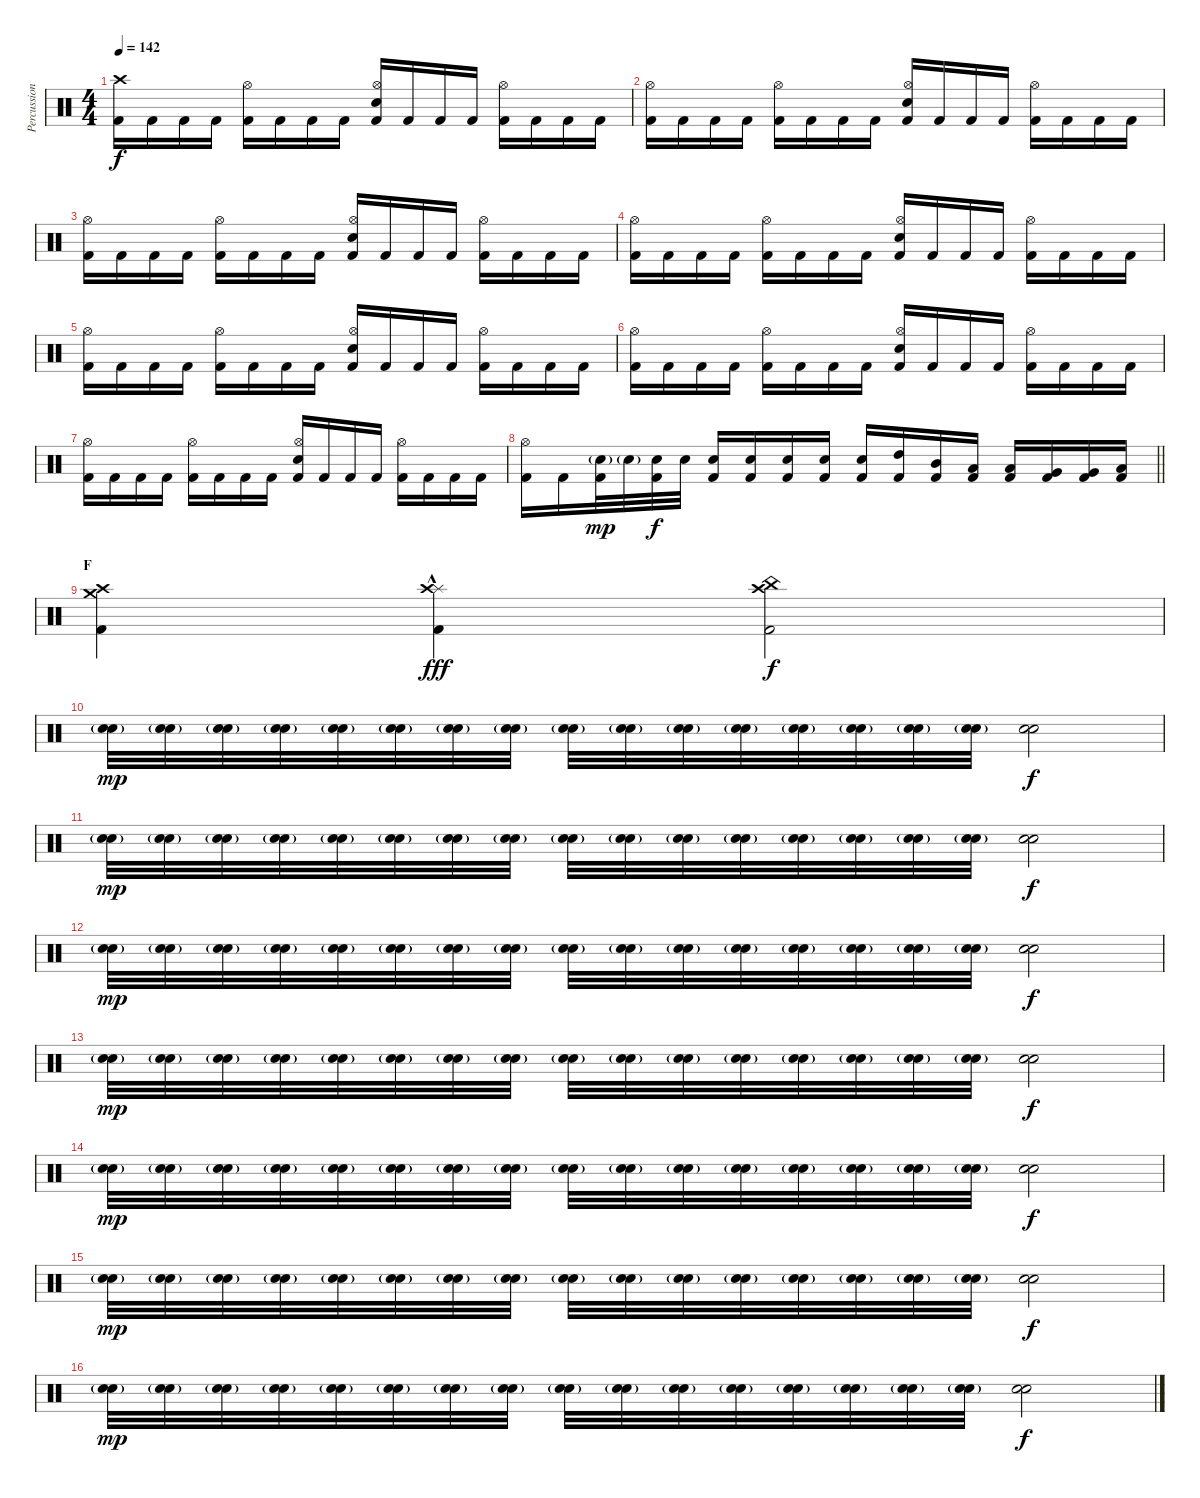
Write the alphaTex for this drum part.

\track ("Percussion" "Percussion") {instrument percussion}
\staff {score}
\articulation defaults
\ts (4 4)
\tempo 142
\clef neutral
\ks c
("Crash high (hit)" "Kick (hit) 2").16{dy f} "Kick (hit) 2".16 "Kick (hit) 2".16 "Kick (hit) 2".16 ("Hi-Hat (open)" "Kick (hit) 2").16 "Kick (hit) 2".16 "Kick (hit) 2".16 "Kick (hit) 2".16 ("Hi-Hat (open)" "Electric Snare (hit)" "Kick (hit) 2").16 "Kick (hit) 2".16 "Kick (hit) 2".16 "Kick (hit) 2".16 ("Hi-Hat (open)" "Kick (hit) 2").16 "Kick (hit) 2".16 "Kick (hit) 2".16 "Kick (hit) 2".16 |
("Hi-Hat (open)" "Kick (hit) 2").16 "Kick (hit) 2".16 "Kick (hit) 2".16 "Kick (hit) 2".16 ("Hi-Hat (open)" "Kick (hit) 2").16 "Kick (hit) 2".16 "Kick (hit) 2".16 "Kick (hit) 2".16 ("Hi-Hat (open)" "Electric Snare (hit)" "Kick (hit) 2").16 "Kick (hit) 2".16 "Kick (hit) 2".16 "Kick (hit) 2".16 ("Hi-Hat (open)" "Kick (hit) 2").16 "Kick (hit) 2".16 "Kick (hit) 2".16 "Kick (hit) 2".16 |
("Hi-Hat (open)" "Kick (hit) 2").16 "Kick (hit) 2".16 "Kick (hit) 2".16 "Kick (hit) 2".16 ("Hi-Hat (open)" "Kick (hit) 2").16 "Kick (hit) 2".16 "Kick (hit) 2".16 "Kick (hit) 2".16 ("Hi-Hat (open)" "Electric Snare (hit)" "Kick (hit) 2").16 "Kick (hit) 2".16 "Kick (hit) 2".16 "Kick (hit) 2".16 ("Hi-Hat (open)" "Kick (hit) 2").16 "Kick (hit) 2".16 "Kick (hit) 2".16 "Kick (hit) 2".16 |
("Hi-Hat (open)" "Kick (hit) 2").16 "Kick (hit) 2".16 "Kick (hit) 2".16 "Kick (hit) 2".16 ("Hi-Hat (open)" "Kick (hit) 2").16 "Kick (hit) 2".16 "Kick (hit) 2".16 "Kick (hit) 2".16 ("Hi-Hat (open)" "Electric Snare (hit)" "Kick (hit) 2").16 "Kick (hit) 2".16 "Kick (hit) 2".16 "Kick (hit) 2".16 ("Hi-Hat (open)" "Kick (hit) 2").16 "Kick (hit) 2".16 "Kick (hit) 2".16 "Kick (hit) 2".16 |
("Hi-Hat (open)" "Kick (hit) 2").16 "Kick (hit) 2".16 "Kick (hit) 2".16 "Kick (hit) 2".16 ("Hi-Hat (open)" "Kick (hit) 2").16 "Kick (hit) 2".16 "Kick (hit) 2".16 "Kick (hit) 2".16 ("Hi-Hat (open)" "Electric Snare (hit)" "Kick (hit) 2").16 "Kick (hit) 2".16 "Kick (hit) 2".16 "Kick (hit) 2".16 ("Hi-Hat (open)" "Kick (hit) 2").16 "Kick (hit) 2".16 "Kick (hit) 2".16 "Kick (hit) 2".16 |
("Hi-Hat (open)" "Kick (hit) 2").16 "Kick (hit) 2".16 "Kick (hit) 2".16 "Kick (hit) 2".16 ("Hi-Hat (open)" "Kick (hit) 2").16 "Kick (hit) 2".16 "Kick (hit) 2".16 "Kick (hit) 2".16 ("Hi-Hat (open)" "Electric Snare (hit)" "Kick (hit) 2").16 "Kick (hit) 2".16 "Kick (hit) 2".16 "Kick (hit) 2".16 ("Hi-Hat (open)" "Kick (hit) 2").16 "Kick (hit) 2".16 "Kick (hit) 2".16 "Kick (hit) 2".16 |
("Hi-Hat (open)" "Kick (hit) 2").16 "Kick (hit) 2".16 "Kick (hit) 2".16 "Kick (hit) 2".16 ("Hi-Hat (open)" "Kick (hit) 2").16 "Kick (hit) 2".16 "Kick (hit) 2".16 "Kick (hit) 2".16 ("Hi-Hat (open)" "Electric Snare (hit)" "Kick (hit) 2").16 "Kick (hit) 2".16 "Kick (hit) 2".16 "Kick (hit) 2".16 ("Hi-Hat (open)" "Kick (hit) 2").16 "Kick (hit) 2".16 "Kick (hit) 2".16 "Kick (hit) 2".16 |
\barLineRight lightlight
("Hi-Hat (open)" "Kick (hit) 2").16 "Kick (hit) 2".16 ("Electric Snare (hit)"{g} "Kick (hit) 2").32{dy mp} "Electric Snare (hit)"{g}.32 ("Electric Snare (hit)" "Kick (hit) 2").32{dy f} "Electric Snare (hit)".32 ("Electric Snare (hit)" "Kick (hit) 2").16 ("Electric Snare (hit)" "Kick (hit) 2").16 ("Electric Snare (hit)" "Kick (hit) 2").16 ("Electric Snare (hit)" "Kick (hit) 2").16 ("Electric Snare (hit)" "Kick (hit) 2").16 ("High Tom (hit)" "Kick (hit) 2").16 ("Mid Tom (hit)" "Kick (hit) 2").16 ("Low Tom (hit)" "Kick (hit) 2").16 ("Low Tom (hit)" "Kick (hit) 2").16 ("Very Low Tom (hit)" "Kick (hit) 2").16 ("Very Low Tom (hit)" "Kick (hit) 2").16 ("Low Floor Tom (hit)" "Kick (hit) 2").16 |
\section ("" "F")
("Crash medium (hit)" "Crash high (hit)" "Kick (hit) 2").4 ("Splash (hit)"{hac} "Crash high (hit)" "Kick (hit) 2").4{dy fff} ("China (hit)" "Crash high (hit)" "Kick (hit) 2").2{dy f} |
("Electric Snare (hit)"{g} "Snare (hit) 2"{g}).32{dy mp volume 5} ("Electric Snare (hit)"{g} "Snare (hit) 2"{g}).32 ("Electric Snare (hit)"{g} "Snare (hit) 2"{g}).32 ("Electric Snare (hit)"{g} "Snare (hit) 2"{g}).32 ("Electric Snare (hit)"{g} "Snare (hit) 2"{g}).32 ("Electric Snare (hit)"{g} "Snare (hit) 2"{g}).32 ("Electric Snare (hit)"{g} "Snare (hit) 2"{g}).32 ("Electric Snare (hit)"{g} "Snare (hit) 2"{g}).32 ("Electric Snare (hit)"{g} "Snare (hit) 2"{g}).32 ("Electric Snare (hit)"{g} "Snare (hit) 2"{g}).32 ("Electric Snare (hit)"{g} "Snare (hit) 2"{g}).32 ("Electric Snare (hit)"{g} "Snare (hit) 2"{g}).32 ("Electric Snare (hit)"{g} "Snare (hit) 2"{g}).32 ("Electric Snare (hit)"{g} "Snare (hit) 2"{g}).32 ("Electric Snare (hit)"{g} "Snare (hit) 2"{g}).32 ("Electric Snare (hit)"{g} "Snare (hit) 2"{g}).32 ("Electric Snare (hit)" "Snare (hit) 2").2{dy f} |
("Electric Snare (hit)"{g} "Snare (hit) 2"{g}).32{dy mp volume 7} ("Electric Snare (hit)"{g} "Snare (hit) 2"{g}).32 ("Electric Snare (hit)"{g} "Snare (hit) 2"{g}).32 ("Electric Snare (hit)"{g} "Snare (hit) 2"{g}).32 ("Electric Snare (hit)"{g} "Snare (hit) 2"{g}).32 ("Electric Snare (hit)"{g} "Snare (hit) 2"{g}).32 ("Electric Snare (hit)"{g} "Snare (hit) 2"{g}).32 ("Electric Snare (hit)"{g} "Snare (hit) 2"{g}).32 ("Electric Snare (hit)"{g} "Snare (hit) 2"{g}).32 ("Electric Snare (hit)"{g} "Snare (hit) 2"{g}).32 ("Electric Snare (hit)"{g} "Snare (hit) 2"{g}).32 ("Electric Snare (hit)"{g} "Snare (hit) 2"{g}).32 ("Electric Snare (hit)"{g} "Snare (hit) 2"{g}).32 ("Electric Snare (hit)"{g} "Snare (hit) 2"{g}).32 ("Electric Snare (hit)"{g} "Snare (hit) 2"{g}).32 ("Electric Snare (hit)"{g} "Snare (hit) 2"{g}).32 ("Electric Snare (hit)" "Snare (hit) 2").2{dy f} |
("Electric Snare (hit)"{g} "Snare (hit) 2"{g}).32{dy mp} ("Electric Snare (hit)"{g} "Snare (hit) 2"{g}).32 ("Electric Snare (hit)"{g} "Snare (hit) 2"{g}).32 ("Electric Snare (hit)"{g} "Snare (hit) 2"{g}).32 ("Electric Snare (hit)"{g} "Snare (hit) 2"{g}).32 ("Electric Snare (hit)"{g} "Snare (hit) 2"{g}).32 ("Electric Snare (hit)"{g} "Snare (hit) 2"{g}).32 ("Electric Snare (hit)"{g} "Snare (hit) 2"{g}).32 ("Electric Snare (hit)"{g} "Snare (hit) 2"{g}).32 ("Electric Snare (hit)"{g} "Snare (hit) 2"{g}).32 ("Electric Snare (hit)"{g} "Snare (hit) 2"{g}).32 ("Electric Snare (hit)"{g} "Snare (hit) 2"{g}).32 ("Electric Snare (hit)"{g} "Snare (hit) 2"{g}).32 ("Electric Snare (hit)"{g} "Snare (hit) 2"{g}).32 ("Electric Snare (hit)"{g} "Snare (hit) 2"{g}).32 ("Electric Snare (hit)"{g} "Snare (hit) 2"{g}).32 ("Electric Snare (hit)" "Snare (hit) 2").2{dy f} |
("Electric Snare (hit)"{g} "Snare (hit) 2"{g}).32{dy mp} ("Electric Snare (hit)"{g} "Snare (hit) 2"{g}).32 ("Electric Snare (hit)"{g} "Snare (hit) 2"{g}).32 ("Electric Snare (hit)"{g} "Snare (hit) 2"{g}).32 ("Electric Snare (hit)"{g} "Snare (hit) 2"{g}).32 ("Electric Snare (hit)"{g} "Snare (hit) 2"{g}).32 ("Electric Snare (hit)"{g} "Snare (hit) 2"{g}).32 ("Electric Snare (hit)"{g} "Snare (hit) 2"{g}).32 ("Electric Snare (hit)"{g} "Snare (hit) 2"{g}).32 ("Electric Snare (hit)"{g} "Snare (hit) 2"{g}).32 ("Electric Snare (hit)"{g} "Snare (hit) 2"{g}).32 ("Electric Snare (hit)"{g} "Snare (hit) 2"{g}).32 ("Electric Snare (hit)"{g} "Snare (hit) 2"{g}).32 ("Electric Snare (hit)"{g} "Snare (hit) 2"{g}).32 ("Electric Snare (hit)"{g} "Snare (hit) 2"{g}).32 ("Electric Snare (hit)"{g} "Snare (hit) 2"{g}).32 ("Electric Snare (hit)" "Snare (hit) 2").2{dy f} |
("Electric Snare (hit)"{g} "Snare (hit) 2"{g}).32{dy mp} ("Electric Snare (hit)"{g} "Snare (hit) 2"{g}).32 ("Electric Snare (hit)"{g} "Snare (hit) 2"{g}).32 ("Electric Snare (hit)"{g} "Snare (hit) 2"{g}).32 ("Electric Snare (hit)"{g} "Snare (hit) 2"{g}).32 ("Electric Snare (hit)"{g} "Snare (hit) 2"{g}).32 ("Electric Snare (hit)"{g} "Snare (hit) 2"{g}).32 ("Electric Snare (hit)"{g} "Snare (hit) 2"{g}).32 ("Electric Snare (hit)"{g} "Snare (hit) 2"{g}).32 ("Electric Snare (hit)"{g} "Snare (hit) 2"{g}).32 ("Electric Snare (hit)"{g} "Snare (hit) 2"{g}).32 ("Electric Snare (hit)"{g} "Snare (hit) 2"{g}).32 ("Electric Snare (hit)"{g} "Snare (hit) 2"{g}).32 ("Electric Snare (hit)"{g} "Snare (hit) 2"{g}).32 ("Electric Snare (hit)"{g} "Snare (hit) 2"{g}).32 ("Electric Snare (hit)"{g} "Snare (hit) 2"{g}).32 ("Electric Snare (hit)" "Snare (hit) 2").2{dy f} |
("Electric Snare (hit)"{g} "Snare (hit) 2"{g}).32{dy mp volume 9} ("Electric Snare (hit)"{g} "Snare (hit) 2"{g}).32 ("Electric Snare (hit)"{g} "Snare (hit) 2"{g}).32 ("Electric Snare (hit)"{g} "Snare (hit) 2"{g}).32 ("Electric Snare (hit)"{g} "Snare (hit) 2"{g}).32 ("Electric Snare (hit)"{g} "Snare (hit) 2"{g}).32 ("Electric Snare (hit)"{g} "Snare (hit) 2"{g}).32 ("Electric Snare (hit)"{g} "Snare (hit) 2"{g}).32 ("Electric Snare (hit)"{g} "Snare (hit) 2"{g}).32 ("Electric Snare (hit)"{g} "Snare (hit) 2"{g}).32 ("Electric Snare (hit)"{g} "Snare (hit) 2"{g}).32 ("Electric Snare (hit)"{g} "Snare (hit) 2"{g}).32 ("Electric Snare (hit)"{g} "Snare (hit) 2"{g}).32 ("Electric Snare (hit)"{g} "Snare (hit) 2"{g}).32 ("Electric Snare (hit)"{g} "Snare (hit) 2"{g}).32 ("Electric Snare (hit)"{g} "Snare (hit) 2"{g}).32 ("Electric Snare (hit)" "Snare (hit) 2").2{dy f} |
("Electric Snare (hit)"{g} "Snare (hit) 2"{g}).32{dy mp} ("Electric Snare (hit)"{g} "Snare (hit) 2"{g}).32 ("Electric Snare (hit)"{g} "Snare (hit) 2"{g}).32 ("Electric Snare (hit)"{g} "Snare (hit) 2"{g}).32 ("Electric Snare (hit)"{g} "Snare (hit) 2"{g}).32 ("Electric Snare (hit)"{g} "Snare (hit) 2"{g}).32 ("Electric Snare (hit)"{g} "Snare (hit) 2"{g}).32 ("Electric Snare (hit)"{g} "Snare (hit) 2"{g}).32 ("Electric Snare (hit)"{g} "Snare (hit) 2"{g}).32 ("Electric Snare (hit)"{g} "Snare (hit) 2"{g}).32 ("Electric Snare (hit)"{g} "Snare (hit) 2"{g}).32 ("Electric Snare (hit)"{g} "Snare (hit) 2"{g}).32 ("Electric Snare (hit)"{g} "Snare (hit) 2"{g}).32 ("Electric Snare (hit)"{g} "Snare (hit) 2"{g}).32 ("Electric Snare (hit)"{g} "Snare (hit) 2"{g}).32 ("Electric Snare (hit)"{g} "Snare (hit) 2"{g}).32 ("Electric Snare (hit)" "Snare (hit) 2").2{dy f}
